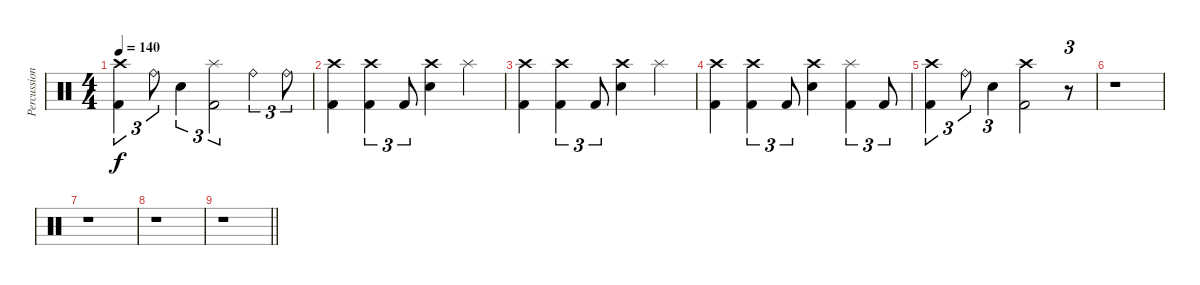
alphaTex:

\track ("Percussion" "Percussion") {instrument percussion}
\staff {score}
\articulation defaults
\ts (4 4)
\tempo 140
\clef neutral
\ks c
("Crash high (hit)" "Kick (hit) 2").4{tu (3 2) dy f} "Ride (bell)".8{tu (3 2)} "Electric Snare (hit)".4{tu (3 2)} ("Splash (hit)" "Kick (hit) 2").2{tu (3 2)} "Ride (bell)".4{tu (3 2)} "Ride (bell)".8{tu (3 2)} |
("Crash high (hit)" "Kick (hit) 2").4 ("Crash high (hit)" "Kick (hit) 2").4{tu (3 2)} "Kick (hit) 2".8{tu (3 2)} ("Crash high (hit)" "Electric Snare (hit)").4 "Splash (hit)".4 |
("Crash high (hit)" "Kick (hit) 2").4 ("Crash high (hit)" "Kick (hit) 2").4{tu (3 2)} "Kick (hit) 2".8{tu (3 2)} ("Crash high (hit)" "Electric Snare (hit)").4 "Splash (hit)".4 |
("Crash high (hit)" "Kick (hit) 2").4 ("Crash high (hit)" "Kick (hit) 2").4{tu (3 2)} "Kick (hit) 2".8{tu (3 2)} ("Crash high (hit)" "Electric Snare (hit)").4 ("Splash (hit)" "Kick (hit) 2").4{tu (3 2)} "Kick (hit) 2".8{tu (3 2)} |
("Crash high (hit)" "Kick (hit) 2").4{tu (3 2)} "Ride (bell)".8{tu (3 2)} "Electric Snare (hit)".4{tu (3 2)} ("Crash high (hit)" "Kick (hit) 2").2 r.8{tu (3 2)} |
r.1 |
r.1 |
r.1 |
\barLineRight lightlight
r.1
